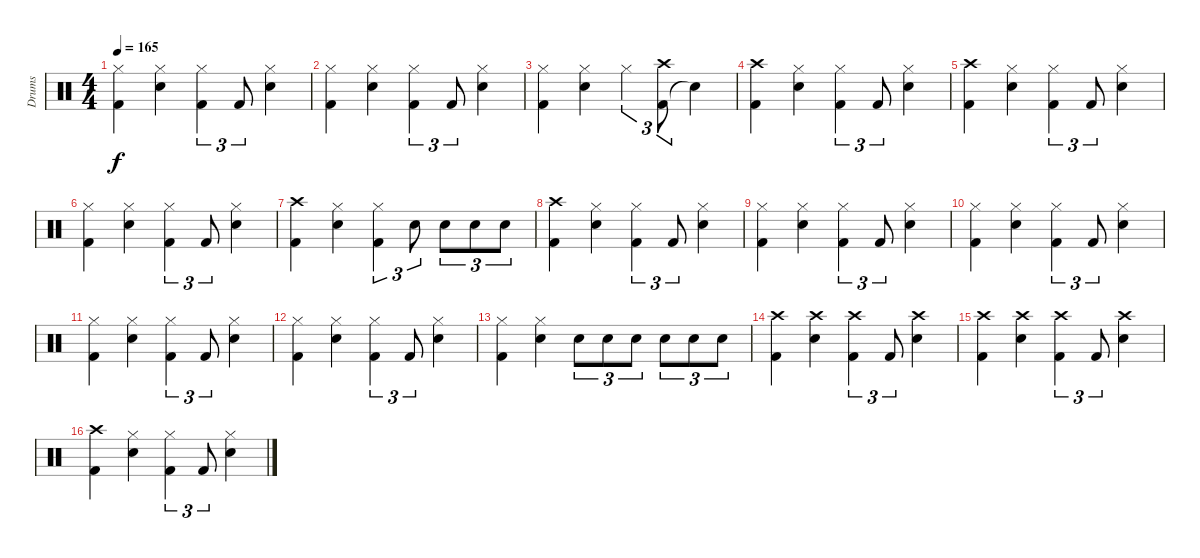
\track ("Drums" "Drums") {instrument percussion}
\staff {score}
\articulation defaults
\ts (4 4)
\tempo 165
\clef neutral
\ks c
("Hi-Hat (closed)" "Kick (hit) 2").4{dy f} ("Hi-Hat (closed)" "Electric Snare (hit)").4 ("Hi-Hat (closed)" "Kick (hit) 2").4{tu (3 2)} "Kick (hit) 2".8{tu (3 2)} ("Hi-Hat (closed)" "Electric Snare (hit)").4 |
("Hi-Hat (closed)" "Kick (hit) 2").4 ("Hi-Hat (closed)" "Electric Snare (hit)").4 ("Hi-Hat (closed)" "Kick (hit) 2").4{tu (3 2)} "Kick (hit) 2".8{tu (3 2)} ("Hi-Hat (closed)" "Electric Snare (hit)").4 |
("Hi-Hat (closed)" "Kick (hit) 2").4 ("Hi-Hat (closed)" "Electric Snare (hit)").4 "Hi-Hat (closed)".4{tu (3 2)} ("Kick (hit) 2" "Crash high (hit)").8{tu (3 2)} "Snare (hit)"{t}.4 |
("Crash high (hit)" "Kick (hit) 2").4 ("Hi-Hat (closed)" "Electric Snare (hit)").4 ("Hi-Hat (closed)" "Kick (hit) 2").4{tu (3 2)} "Kick (hit) 2".8{tu (3 2)} ("Hi-Hat (closed)" "Electric Snare (hit)").4 |
("Crash high (hit)" "Kick (hit) 2").4 ("Hi-Hat (closed)" "Electric Snare (hit)").4 ("Hi-Hat (closed)" "Kick (hit) 2").4{tu (3 2)} "Kick (hit) 2".8{tu (3 2)} ("Hi-Hat (closed)" "Electric Snare (hit)").4 |
("Hi-Hat (closed)" "Kick (hit) 2").4 ("Hi-Hat (closed)" "Electric Snare (hit)").4 ("Hi-Hat (closed)" "Kick (hit) 2").4{tu (3 2)} "Kick (hit) 2".8{tu (3 2)} ("Hi-Hat (closed)" "Electric Snare (hit)").4 |
("Crash high (hit)" "Kick (hit) 2").4 ("Hi-Hat (closed)" "Electric Snare (hit)").4 ("Hi-Hat (closed)" "Kick (hit) 2").4{tu (3 2)} "Electric Snare (hit)".8{tu (3 2)} "Electric Snare (hit)".8{tu (3 2)} "Electric Snare (hit)".8{tu (3 2)} "Electric Snare (hit)".8{tu (3 2)} |
("Crash high (hit)" "Kick (hit) 2").4 ("Hi-Hat (closed)" "Electric Snare (hit)").4 ("Hi-Hat (closed)" "Kick (hit) 2").4{tu (3 2)} "Kick (hit) 2".8{tu (3 2)} ("Hi-Hat (closed)" "Electric Snare (hit)").4 |
("Hi-Hat (closed)" "Kick (hit) 2").4 ("Hi-Hat (closed)" "Electric Snare (hit)").4 ("Hi-Hat (closed)" "Kick (hit) 2").4{tu (3 2)} "Kick (hit) 2".8{tu (3 2)} ("Hi-Hat (closed)" "Electric Snare (hit)").4 |
("Hi-Hat (closed)" "Kick (hit) 2").4 ("Hi-Hat (closed)" "Electric Snare (hit)").4 ("Hi-Hat (closed)" "Kick (hit) 2").4{tu (3 2)} "Kick (hit) 2".8{tu (3 2)} ("Hi-Hat (closed)" "Electric Snare (hit)").4 |
("Hi-Hat (closed)" "Kick (hit) 2").4 ("Hi-Hat (closed)" "Electric Snare (hit)").4 ("Hi-Hat (closed)" "Kick (hit) 2").4{tu (3 2)} "Kick (hit) 2".8{tu (3 2)} ("Hi-Hat (closed)" "Electric Snare (hit)").4 |
("Hi-Hat (closed)" "Kick (hit) 2").4 ("Hi-Hat (closed)" "Electric Snare (hit)").4 ("Hi-Hat (closed)" "Kick (hit) 2").4{tu (3 2)} "Kick (hit) 2".8{tu (3 2)} ("Hi-Hat (closed)" "Electric Snare (hit)").4 |
("Hi-Hat (closed)" "Kick (hit) 2").4 ("Hi-Hat (closed)" "Electric Snare (hit)").4 "Electric Snare (hit)".8{tu (3 2)} "Electric Snare (hit)".8{tu (3 2)} "Electric Snare (hit)".8{tu (3 2)} "Electric Snare (hit)".8{tu (3 2)} "Electric Snare (hit)".8{tu (3 2)} "Electric Snare (hit)".8{tu (3 2)} |
("Crash high (hit)" "Kick (hit) 2").4 ("Crash high (hit)" "Electric Snare (hit)").4 ("Crash high (hit)" "Kick (hit) 2").4{tu (3 2)} "Kick (hit) 2".8{tu (3 2)} ("Crash high (hit)" "Electric Snare (hit)").4 |
("Crash high (hit)" "Kick (hit) 2").4 ("Crash high (hit)" "Electric Snare (hit)").4 ("Crash high (hit)" "Kick (hit) 2").4{tu (3 2)} "Kick (hit) 2".8{tu (3 2)} ("Crash high (hit)" "Electric Snare (hit)").4 |
("Crash high (hit)" "Kick (hit) 2").4 ("Hi-Hat (closed)" "Electric Snare (hit)").4 ("Hi-Hat (closed)" "Kick (hit) 2").4{tu (3 2)} "Kick (hit) 2".8{tu (3 2)} ("Hi-Hat (closed)" "Electric Snare (hit)").4
